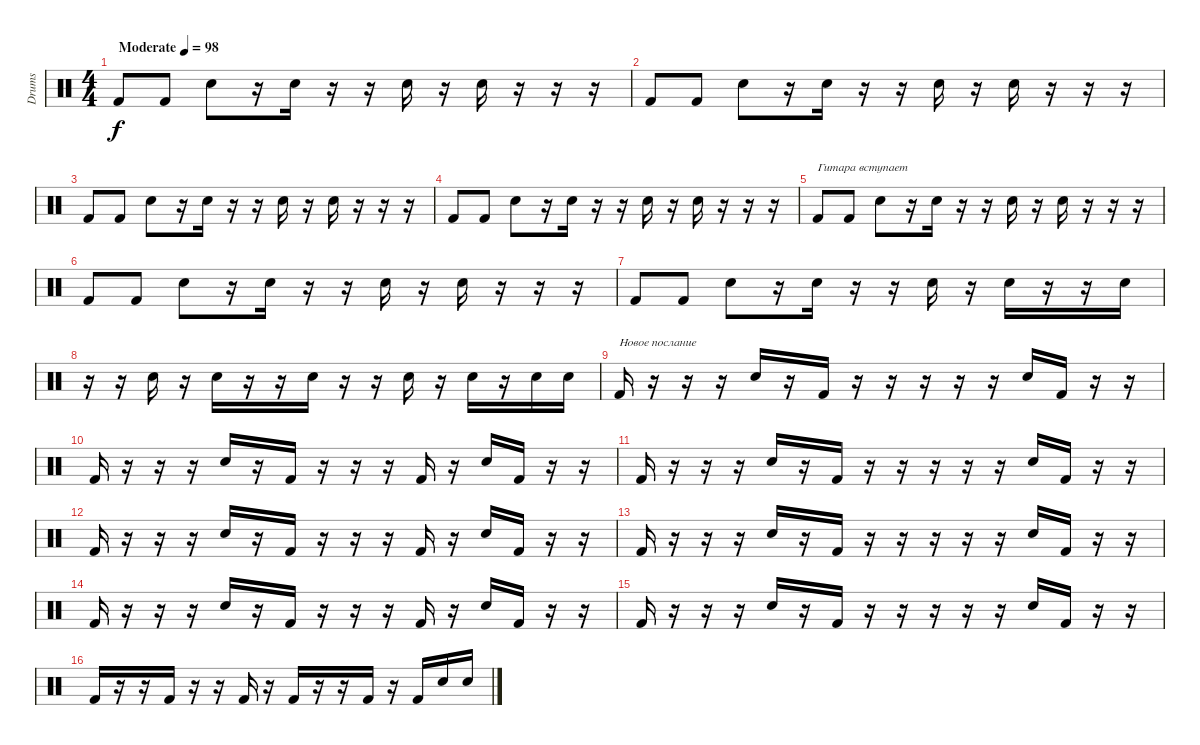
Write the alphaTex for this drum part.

\track ("Drums" "Drums") {instrument percussion}
\staff {score}
\articulation defaults
\ts (4 4)
\tempo (98 "Moderate")
\clef neutral
\ks c "Kick (hit) 2".8{dy f} "Kick (hit) 2".8 "Electric Snare (hit)".8
r.16 "Electric Snare (hit)".16 r.16 r.16 "Electric Snare (hit)".16 r.16 "Electric Snare (hit)".16 r.16 r.16 r.16 |
"Kick (hit) 2".8 "Kick (hit) 2".8 "Electric Snare (hit)".8 r.16 "Electric Snare (hit)".16 r.16 r.16 "Electric Snare (hit)".16 r.16 "Electric Snare (hit)".16 r.16 r.16 r.16 |
"Kick (hit) 2".8 "Kick (hit) 2".8 "Electric Snare (hit)".8 r.16 "Electric Snare (hit)".16 r.16 r.16 "Electric Snare (hit)".16 r.16 "Electric Snare (hit)".16 r.16 r.16 r.16 |
"Kick (hit) 2".8 "Kick (hit) 2".8 "Electric Snare (hit)".8 r.16 "Electric Snare (hit)".16 r.16 r.16 "Electric Snare (hit)".16 r.16 "Electric Snare (hit)".16 r.16 r.16 r.16 |
"Kick (hit) 2".8{txt "Гитара вступает"} "Kick (hit) 2".8 "Electric Snare (hit)".8 r.16 "Electric Snare (hit)".16 r.16 r.16 "Electric Snare (hit)".16 r.16 "Electric Snare (hit)".16 r.16 r.16 r.16 |
"Kick (hit) 2".8 "Kick (hit) 2".8 "Electric Snare (hit)".8 r.16 "Electric Snare (hit)".16 r.16 r.16 "Electric Snare (hit)".16 r.16 "Electric Snare (hit)".16 r.16 r.16 r.16 |
"Kick (hit) 2".8 "Kick (hit) 2".8 "Electric Snare (hit)".8 r.16 "Electric Snare (hit)".16 r.16 r.16 "Electric Snare (hit)".16 r.16 "Electric Snare (hit)".16 r.16 r.16 "Electric Snare (hit)".16 |
r.16 r.16 "Electric Snare (hit)".16 r.16 "Electric Snare (hit)".16 r.16 r.16 "Electric Snare (hit)".16 r.16 r.16 "Electric Snare (hit)".16 r.16 "Electric Snare (hit)".16 r.16 "Electric Snare (hit)".16 "Electric Snare (hit)".16 |
"Kick (hit) 2".16{txt "Новое послание"} r.16 r.16 r.16 "Electric Snare (hit)".16 r.16 "Kick (hit) 2".16 r.16 r.16 r.16 r.16 r.16 "Electric Snare (hit)".16 "Kick (hit) 2".16 r.16 r.16 |
"Kick (hit) 2".16 r.16 r.16 r.16 "Electric Snare (hit)".16 r.16 "Kick (hit) 2".16 r.16 r.16 r.16 "Kick (hit) 2".16 r.16 "Electric Snare (hit)".16 "Kick (hit) 2".16 r.16 r.16 |
"Kick (hit) 2".16 r.16 r.16 r.16 "Electric Snare (hit)".16 r.16 "Kick (hit) 2".16 r.16 r.16 r.16 r.16 r.16 "Electric Snare (hit)".16 "Kick (hit) 2".16 r.16 r.16 |
"Kick (hit) 2".16 r.16 r.16 r.16 "Electric Snare (hit)".16 r.16 "Kick (hit) 2".16 r.16 r.16 r.16 "Kick (hit) 2".16 r.16 "Electric Snare (hit)".16 "Kick (hit) 2".16 r.16 r.16 |
"Kick (hit) 2".16 r.16 r.16 r.16 "Electric Snare (hit)".16 r.16 "Kick (hit) 2".16 r.16 r.16 r.16 r.16 r.16 "Electric Snare (hit)".16 "Kick (hit) 2".16 r.16 r.16 |
"Kick (hit) 2".16 r.16 r.16 r.16 "Electric Snare (hit)".16 r.16 "Kick (hit) 2".16 r.16 r.16 r.16 "Kick (hit) 2".16 r.16 "Electric Snare (hit)".16 "Kick (hit) 2".16 r.16 r.16 |
"Kick (hit) 2".16 r.16 r.16 r.16 "Electric Snare (hit)".16 r.16 "Kick (hit) 2".16 r.16 r.16 r.16 r.16 r.16 "Electric Snare (hit)".16 "Kick (hit) 2".16 r.16 r.16 |
"Kick (hit) 2".16 r.16 r.16 "Kick (hit) 2".16 r.16 r.16 "Kick (hit) 2".16 r.16 "Kick (hit) 2".16 r.16 r.16 "Kick (hit) 2".16 r.16 "Kick (hit) 2".16 "Electric Snare (hit)".16 "Electric Snare (hit)".16
